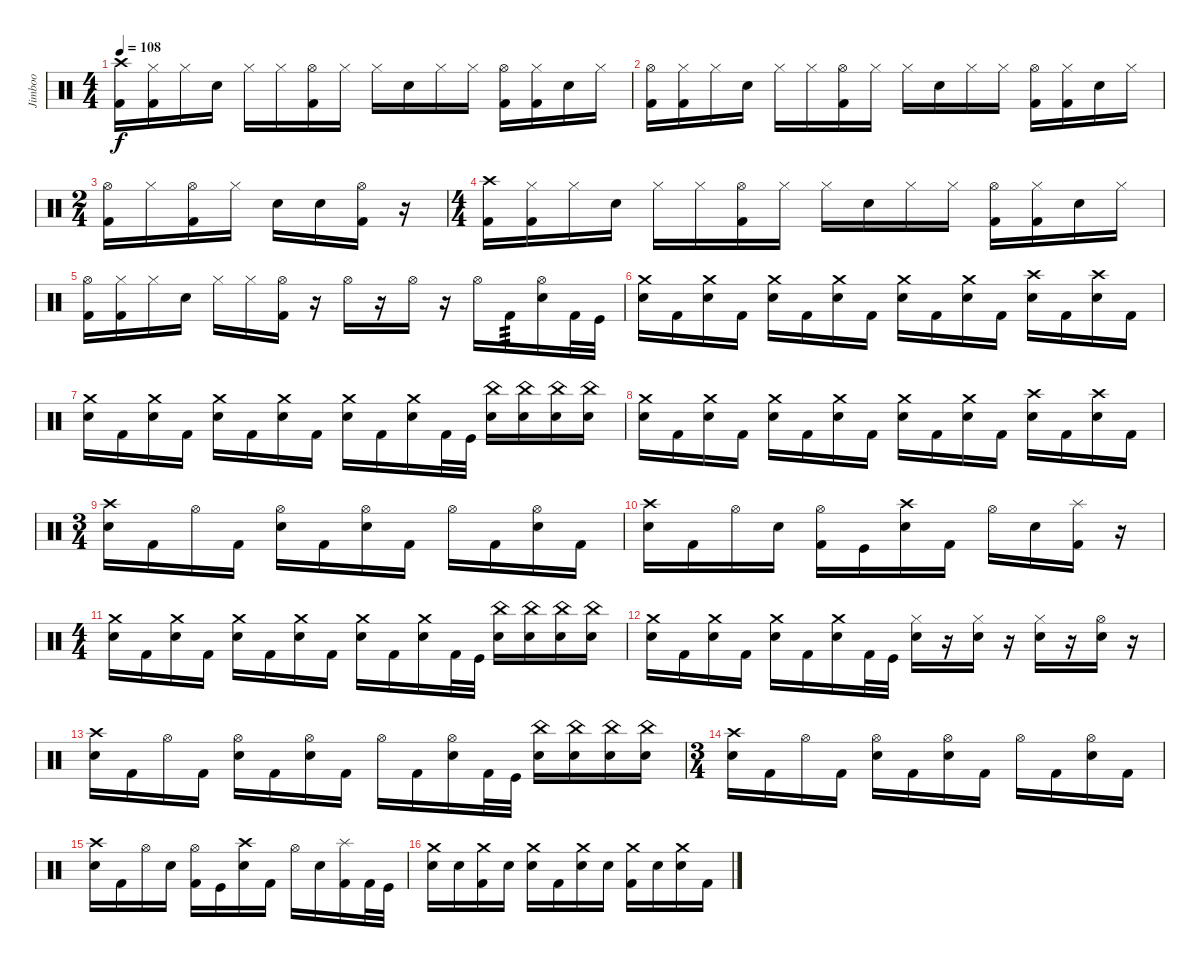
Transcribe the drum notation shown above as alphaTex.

\track ("Jimboo" "Jimboo") {instrument percussion}
\staff
\articulation defaults
\ts (4 4)
\tempo 108
\clef neutral
\ks c
("Crash high (hit)" "Kick (hit) 2").16{dy f} ("Hi-Hat (closed)" "Kick (hit) 2").16 "Hi-Hat (closed)".16 "Electric Snare (hit)".16 "Hi-Hat (closed)".16 "Hi-Hat (closed)".16 ("Hi-Hat (open)" "Kick (hit) 2").16 "Hi-Hat (closed)".16 "Hi-Hat (closed)".16 "Electric Snare (hit)".16 "Hi-Hat (closed)".16 "Hi-Hat (closed)".16 ("Hi-Hat (open)" "Kick (hit) 2").16 ("Hi-Hat (closed)" "Kick (hit) 2").16 "Electric Snare (hit)".16 "Hi-Hat (closed)".16 |
("Hi-Hat (open)" "Kick (hit) 2").16 ("Hi-Hat (closed)" "Kick (hit) 2").16 "Hi-Hat (closed)".16 "Electric Snare (hit)".16 "Hi-Hat (closed)".16 "Hi-Hat (closed)".16 ("Hi-Hat (open)" "Kick (hit) 2").16 "Hi-Hat (closed)".16 "Hi-Hat (closed)".16 "Electric Snare (hit)".16 "Hi-Hat (closed)".16 "Hi-Hat (closed)".16 ("Hi-Hat (open)" "Kick (hit) 2").16 ("Hi-Hat (closed)" "Kick (hit) 2").16 "Electric Snare (hit)".16 "Hi-Hat (closed)".16 |
\ts (2 4)
("Hi-Hat (open)" "Kick (hit) 2").16 "Hi-Hat (closed)".16 ("Hi-Hat (open)" "Kick (hit) 2").16 "Hi-Hat (closed)".16 "Electric Snare (hit)".16 "Electric Snare (hit)".16 ("Hi-Hat (open)" "Kick (hit) 2").16 r.16 |
\ts (4 4)
("Crash high (hit)" "Kick (hit) 2").16 ("Hi-Hat (closed)" "Kick (hit) 2").16 "Hi-Hat (closed)".16 "Electric Snare (hit)".16 "Hi-Hat (closed)".16 "Hi-Hat (closed)".16 ("Hi-Hat (open)" "Kick (hit) 2").16 "Hi-Hat (closed)".16 "Hi-Hat (closed)".16 "Electric Snare (hit)".16 "Hi-Hat (closed)".16 "Hi-Hat (closed)".16 ("Hi-Hat (open)" "Kick (hit) 2").16 ("Hi-Hat (closed)" "Kick (hit) 2").16 "Electric Snare (hit)".16 "Hi-Hat (closed)".16 |
("Hi-Hat (open)" "Kick (hit) 2").16 ("Hi-Hat (closed)" "Kick (hit) 2").16 "Hi-Hat (closed)".16 "Electric Snare (hit)".16 "Hi-Hat (closed)".16 "Hi-Hat (closed)".16 ("Hi-Hat (open)" "Kick (hit) 2").16 r.16 "Hi-Hat (open)".16 r.16 "Hi-Hat (open)".16 r.16 "Hi-Hat (open)".16 "Kick (hit) 2".16{tp 3} ("Hi-Hat (open)" "Electric Snare (hit)").16 "Kick (hit) 2".32 "Kick (hit)".32 |
("Electric Snare (hit)" "Crash medium (hit)").16 "Kick (hit) 2".16 ("Electric Snare (hit)" "Crash medium (hit)").16 "Kick (hit) 2".16 ("Electric Snare (hit)" "Crash medium (hit)").16 "Kick (hit) 2".16 ("Electric Snare (hit)" "Crash medium (hit)").16 "Kick (hit) 2".16 ("Electric Snare (hit)" "Crash medium (hit)").16 "Kick (hit) 2".16 ("Electric Snare (hit)" "Crash medium (hit)").16 "Kick (hit) 2".16 ("Electric Snare (hit)" "Crash high (hit)").16 "Kick (hit) 2".16 ("Electric Snare (hit)" "Crash high (hit)").16 "Kick (hit) 2".16 |
("Electric Snare (hit)" "Crash medium (hit)").16 "Kick (hit) 2".16 ("Electric Snare (hit)" "Crash medium (hit)").16 "Kick (hit) 2".16 ("Electric Snare (hit)" "Crash medium (hit)").16 "Kick (hit) 2".16 ("Electric Snare (hit)" "Crash medium (hit)").16 "Kick (hit) 2".16 ("Electric Snare (hit)" "Crash medium (hit)").16 "Kick (hit) 2".16 ("Electric Snare (hit)" "Crash medium (hit)").16 "Kick (hit) 2".32 "Kick (hit)".32 ("Electric Snare (hit)" "China (hit)").16 ("Electric Snare (hit)" "China (hit)").16 ("Electric Snare (hit)" "China (hit)").16 ("Electric Snare (hit)" "China (hit)").16 |
("Electric Snare (hit)" "Crash medium (hit)").16 "Kick (hit) 2".16 ("Electric Snare (hit)" "Crash medium (hit)").16 "Kick (hit) 2".16 ("Electric Snare (hit)" "Crash medium (hit)").16 "Kick (hit) 2".16 ("Electric Snare (hit)" "Crash medium (hit)").16 "Kick (hit) 2".16 ("Electric Snare (hit)" "Crash medium (hit)").16 "Kick (hit) 2".16 ("Electric Snare (hit)" "Crash medium (hit)").16 "Kick (hit) 2".16 ("Electric Snare (hit)" "Crash high (hit)").16 "Kick (hit) 2".16 ("Electric Snare (hit)" "Crash high (hit)").16 "Kick (hit) 2".16 |
\ts (3 4)
("Electric Snare (hit)" "Crash high (hit)").16 "Kick (hit) 2".16 "Hi-Hat (open)".16 "Kick (hit) 2".16 ("Electric Snare (hit)" "Hi-Hat (open)").16 "Kick (hit) 2".16 ("Electric Snare (hit)" "Hi-Hat (open)").16 "Kick (hit) 2".16 "Hi-Hat (open)".16 "Kick (hit) 2".16 ("Electric Snare (hit)" "Hi-Hat (open)").16 "Kick (hit) 2".16 |
("Electric Snare (hit)" "Crash high (hit)").16 "Kick (hit) 2".16 "Hi-Hat (open)".16 "Electric Snare (hit)".16 ("Kick (hit) 2" "Hi-Hat (open)").16 "Kick (hit)".16 ("Electric Snare (hit)" "Crash high (hit)").16 "Kick (hit) 2".16 "Hi-Hat (open)".16 "Electric Snare (hit)".16 ("Kick (hit) 2" "Splash (hit)").16 r.16 |
\ts (4 4)
("Electric Snare (hit)" "Crash medium (hit)").16 "Kick (hit) 2".16 ("Electric Snare (hit)" "Crash medium (hit)").16 "Kick (hit) 2".16 ("Electric Snare (hit)" "Crash medium (hit)").16 "Kick (hit) 2".16 ("Electric Snare (hit)" "Crash medium (hit)").16 "Kick (hit) 2".16 ("Electric Snare (hit)" "Crash medium (hit)").16 "Kick (hit) 2".16 ("Electric Snare (hit)" "Crash medium (hit)").16 "Kick (hit) 2".32 "Kick (hit)".32 ("Electric Snare (hit)" "China (hit)").16 ("Electric Snare (hit)" "China (hit)").16 ("Electric Snare (hit)" "China (hit)").16 ("Electric Snare (hit)" "China (hit)").16 |
("Electric Snare (hit)" "Crash medium (hit)").16 "Kick (hit) 2".16 ("Electric Snare (hit)" "Crash medium (hit)").16 "Kick (hit) 2".16 ("Electric Snare (hit)" "Crash medium (hit)").16 "Kick (hit) 2".16 ("Electric Snare (hit)" "Crash medium (hit)").16 "Kick (hit) 2".32 "Kick (hit)".32 ("Electric Snare (hit)" "Hi-Hat (closed)").16 r.16 ("Electric Snare (hit)" "Hi-Hat (closed)").16 r.16 ("Electric Snare (hit)" "Hi-Hat (closed)").16 r.16 ("Electric Snare (hit)" "Hi-Hat (open)").16 r.16 |
("Electric Snare (hit)" "Crash high (hit)").16 "Kick (hit) 2".16 "Hi-Hat (open)".16 "Kick (hit) 2".16 ("Electric Snare (hit)" "Hi-Hat (open)").16 "Kick (hit) 2".16 ("Electric Snare (hit)" "Hi-Hat (open)").16 "Kick (hit) 2".16 "Hi-Hat (open)".16 "Kick (hit) 2".16 ("Electric Snare (hit)" "Hi-Hat (open)").16 "Kick (hit) 2".32 "Kick (hit)".32 ("Electric Snare (hit)" "China (hit)").16 ("Electric Snare (hit)" "China (hit)").16 ("Electric Snare (hit)" "China (hit)").16 ("Electric Snare (hit)" "China (hit)").16 |
\ts (3 4)
("Electric Snare (hit)" "Crash high (hit)").16 "Kick (hit) 2".16 "Hi-Hat (open)".16 "Kick (hit) 2".16 ("Electric Snare (hit)" "Hi-Hat (open)").16 "Kick (hit) 2".16 ("Electric Snare (hit)" "Hi-Hat (open)").16 "Kick (hit) 2".16 "Hi-Hat (open)".16 "Kick (hit) 2".16 ("Electric Snare (hit)" "Hi-Hat (open)").16 "Kick (hit) 2".16 |
("Electric Snare (hit)" "Crash high (hit)").16 "Kick (hit) 2".16 "Hi-Hat (open)".16 "Electric Snare (hit)".16 ("Kick (hit) 2" "Hi-Hat (open)").16 "Kick (hit)".16 ("Electric Snare (hit)" "Crash high (hit)").16 "Kick (hit) 2".16 "Hi-Hat (open)".16 "Electric Snare (hit)".16 ("Kick (hit) 2" "Splash (hit)").16 "Kick (hit) 2".32 "Kick (hit)".32 |
("Electric Snare (hit)" "Crash medium (hit)").16 "Electric Snare (hit)".16 ("Kick (hit) 2" "Crash medium (hit)").16 "Electric Snare (hit)".16 ("Electric Snare (hit)" "Crash medium (hit)").16 "Kick (hit) 2".16 ("Electric Snare (hit)" "Crash medium (hit)").16 "Electric Snare (hit)".16 ("Kick (hit) 2" "Crash medium (hit)").16 "Electric Snare (hit)".16 ("Electric Snare (hit)" "Crash medium (hit)").16 "Kick (hit) 2".16
